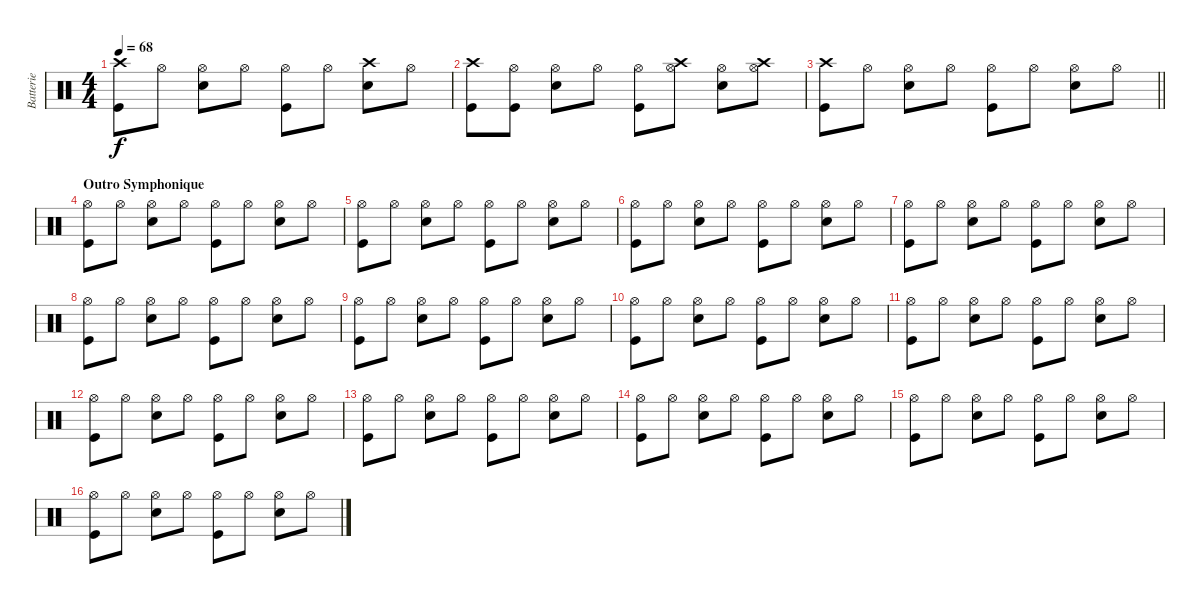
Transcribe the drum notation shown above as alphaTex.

\track ("Batterie" "Batterie") {instrument percussion}
\staff {score}
\articulation defaults
\ts (4 4)
\tempo 68
\clef neutral
\ks c
("Crash high (hit)" "Kick (hit)").8{dy f} "Hi-Hat (open)".8 ("Hi-Hat (open)" "Snare (hit) 2").8 "Hi-Hat (open)".8 ("Hi-Hat (open)" "Kick (hit)").8 "Hi-Hat (open)".8 ("Crash high (hit)" "Snare (hit) 2").8 "Hi-Hat (open)".8 |
("Crash high (hit)" "Kick (hit)").8 ("Hi-Hat (open)" "Kick (hit)").8 ("Hi-Hat (open)" "Snare (hit) 2").8 "Hi-Hat (open)".8 ("Hi-Hat (open)" "Kick (hit)").8 ("Hi-Hat (open)" "Crash high (hit)").8 ("Hi-Hat (open)" "Snare (hit) 2").8 ("Hi-Hat (open)" "Crash high (hit)").8 |
\barLineRight lightlight
("Crash high (hit)" "Kick (hit)").8 "Hi-Hat (open)".8 ("Hi-Hat (open)" "Snare (hit) 2").8 "Hi-Hat (open)".8 ("Hi-Hat (open)" "Kick (hit)").8 "Hi-Hat (open)".8 ("Hi-Hat (open)" "Snare (hit) 2").8 "Hi-Hat (open)".8 |
\section ("" "Outro Symphonique")
("Hi-Hat (open)" "Kick (hit)").8 "Hi-Hat (open)".8 ("Hi-Hat (open)" "Snare (hit) 2").8 "Hi-Hat (open)".8 ("Hi-Hat (open)" "Kick (hit)").8 "Hi-Hat (open)".8 ("Hi-Hat (open)" "Snare (hit) 2").8 "Hi-Hat (open)".8 |
("Hi-Hat (open)" "Kick (hit)").8 "Hi-Hat (open)".8 ("Hi-Hat (open)" "Snare (hit) 2").8 "Hi-Hat (open)".8 ("Hi-Hat (open)" "Kick (hit)").8 "Hi-Hat (open)".8 ("Hi-Hat (open)" "Snare (hit) 2").8 "Hi-Hat (open)".8 |
("Hi-Hat (open)" "Kick (hit)").8 "Hi-Hat (open)".8 ("Hi-Hat (open)" "Snare (hit) 2").8 "Hi-Hat (open)".8 ("Hi-Hat (open)" "Kick (hit)").8 "Hi-Hat (open)".8 ("Hi-Hat (open)" "Snare (hit) 2").8 "Hi-Hat (open)".8 |
("Hi-Hat (open)" "Kick (hit)").8 "Hi-Hat (open)".8 ("Hi-Hat (open)" "Snare (hit) 2").8 "Hi-Hat (open)".8 ("Hi-Hat (open)" "Kick (hit)").8 "Hi-Hat (open)".8 ("Hi-Hat (open)" "Snare (hit) 2").8 "Hi-Hat (open)".8 |
("Hi-Hat (open)" "Kick (hit)").8 "Hi-Hat (open)".8 ("Hi-Hat (open)" "Snare (hit) 2").8 "Hi-Hat (open)".8 ("Hi-Hat (open)" "Kick (hit)").8 "Hi-Hat (open)".8 ("Hi-Hat (open)" "Snare (hit) 2").8 "Hi-Hat (open)".8 |
("Hi-Hat (open)" "Kick (hit)").8 "Hi-Hat (open)".8 ("Hi-Hat (open)" "Snare (hit) 2").8 "Hi-Hat (open)".8 ("Hi-Hat (open)" "Kick (hit)").8 "Hi-Hat (open)".8 ("Hi-Hat (open)" "Snare (hit) 2").8 "Hi-Hat (open)".8 |
("Hi-Hat (open)" "Kick (hit)").8 "Hi-Hat (open)".8 ("Hi-Hat (open)" "Snare (hit) 2").8 "Hi-Hat (open)".8 ("Hi-Hat (open)" "Kick (hit)").8 "Hi-Hat (open)".8 ("Hi-Hat (open)" "Snare (hit) 2").8 "Hi-Hat (open)".8 |
("Hi-Hat (open)" "Kick (hit)").8 "Hi-Hat (open)".8 ("Hi-Hat (open)" "Snare (hit) 2").8 "Hi-Hat (open)".8 ("Hi-Hat (open)" "Kick (hit)").8 "Hi-Hat (open)".8 ("Hi-Hat (open)" "Snare (hit) 2").8 "Hi-Hat (open)".8 |
("Hi-Hat (open)" "Kick (hit)").8 "Hi-Hat (open)".8 ("Hi-Hat (open)" "Snare (hit) 2").8 "Hi-Hat (open)".8 ("Hi-Hat (open)" "Kick (hit)").8 "Hi-Hat (open)".8 ("Hi-Hat (open)" "Snare (hit) 2").8 "Hi-Hat (open)".8 |
("Hi-Hat (open)" "Kick (hit)").8 "Hi-Hat (open)".8 ("Hi-Hat (open)" "Snare (hit) 2").8 "Hi-Hat (open)".8 ("Hi-Hat (open)" "Kick (hit)").8 "Hi-Hat (open)".8 ("Hi-Hat (open)" "Snare (hit) 2").8 "Hi-Hat (open)".8 |
("Hi-Hat (open)" "Kick (hit)").8 "Hi-Hat (open)".8 ("Hi-Hat (open)" "Snare (hit) 2").8 "Hi-Hat (open)".8 ("Hi-Hat (open)" "Kick (hit)").8 "Hi-Hat (open)".8 ("Hi-Hat (open)" "Snare (hit) 2").8 "Hi-Hat (open)".8 |
("Hi-Hat (open)" "Kick (hit)").8 "Hi-Hat (open)".8 ("Hi-Hat (open)" "Snare (hit) 2").8 "Hi-Hat (open)".8 ("Hi-Hat (open)" "Kick (hit)").8 "Hi-Hat (open)".8 ("Hi-Hat (open)" "Snare (hit) 2").8 "Hi-Hat (open)".8 |
("Hi-Hat (open)" "Kick (hit)").8 "Hi-Hat (open)".8 ("Hi-Hat (open)" "Snare (hit) 2").8 "Hi-Hat (open)".8 ("Hi-Hat (open)" "Kick (hit)").8 "Hi-Hat (open)".8 ("Hi-Hat (open)" "Snare (hit) 2").8 "Hi-Hat (open)".8
